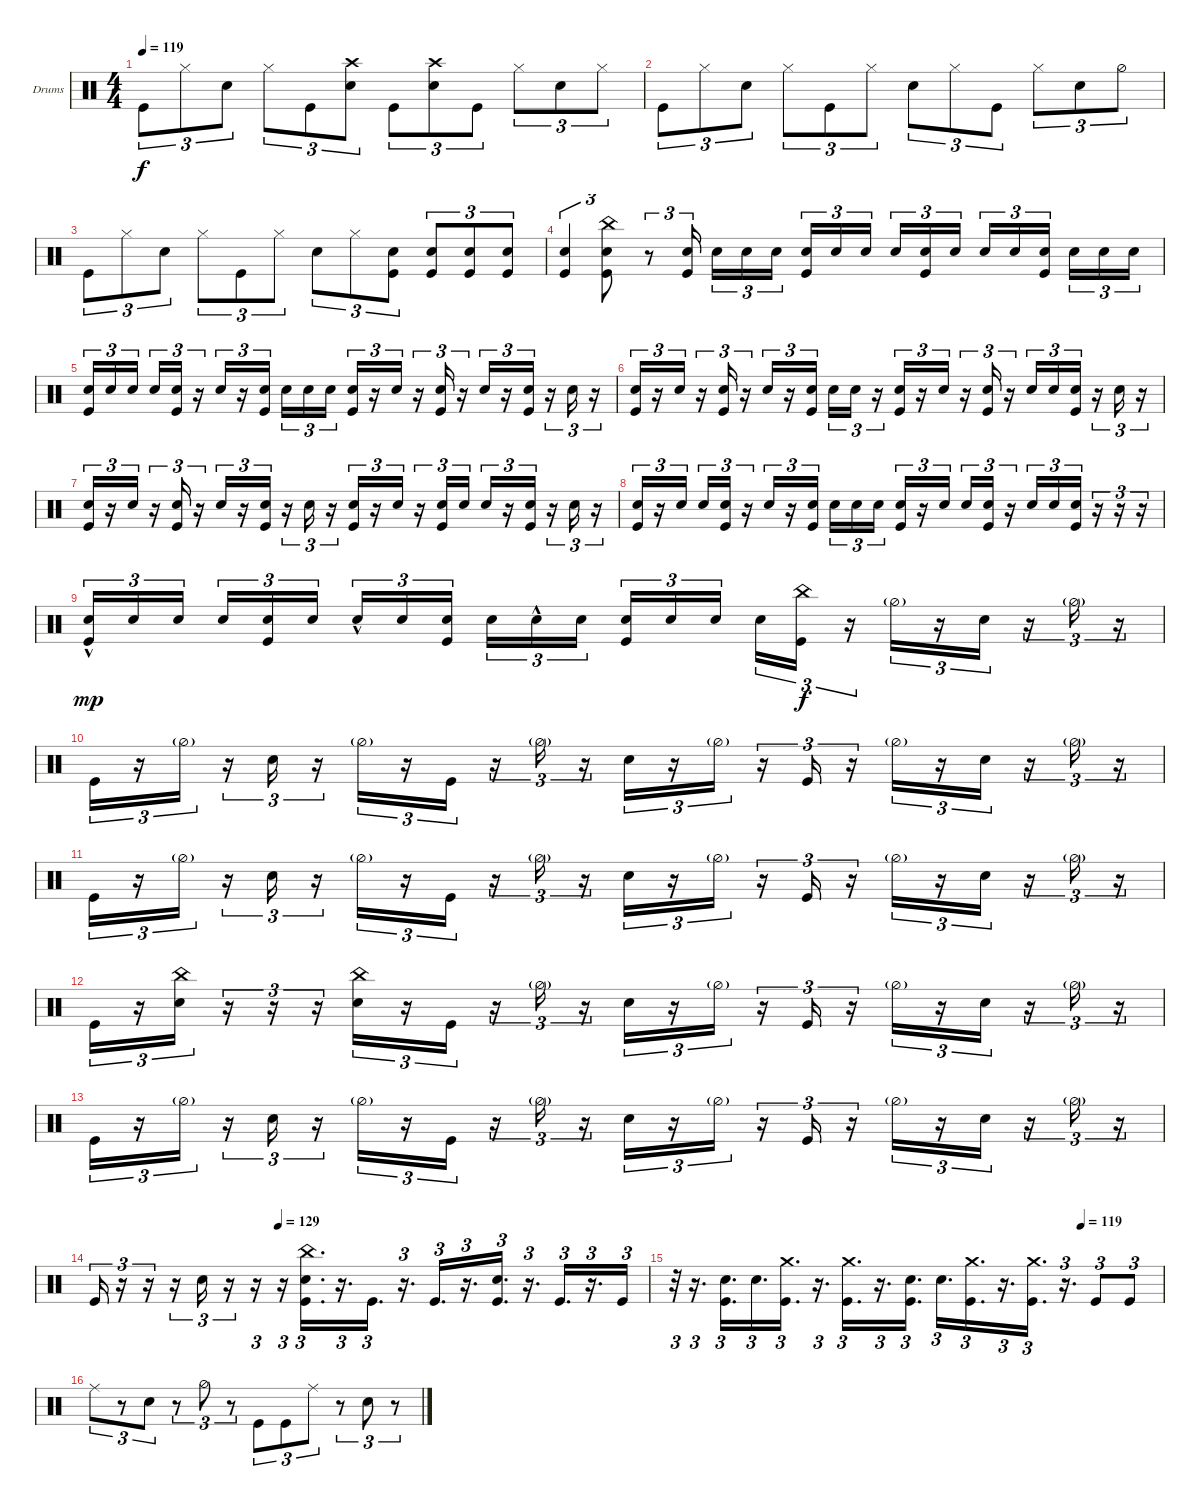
\defaultSystemsLayout 4
\bracketExtendMode groupsimilarinstruments
\firstSystemTrackNameOrientation horizontal
\otherSystemsTrackNameOrientation horizontal
\track ("Drumkit" "Drums") {instrument percussion}
\staff {score}
\articulation defaults
\ts (4 4)
\tempo 119
\clef neutral
\ks c "Kick (hit)".8{tu (3 2) dy f} "Hi-Hat (closed)".8{tu (3 2)} "Snare (hit) 2".8{tu (3 2)} "Hi-Hat (closed)".8{tu (3 2)} "Kick (hit)".8{tu (3 2)}
("Snare (hit) 2" "Crash high (hit)").8{tu (3 2)} "Kick (hit)".8{tu (3 2)} ("Snare (hit) 2" "Crash high (hit)").8{tu (3 2)} "Kick (hit)".8{tu (3 2)} "Hi-Hat (closed)".8{tu (3 2)} "Snare (hit) 2".8{tu (3 2)} "Hi-Hat (closed)".8{tu (3 2)} |
"Kick (hit)".8{tu (3 2)} "Hi-Hat (closed)".8{tu (3 2)} "Snare (hit) 2".8{tu (3 2)} "Hi-Hat (closed)".8{tu (3 2)} "Kick (hit)".8{tu (3 2)} "Hi-Hat (closed)".8{tu (3 2)} "Snare (hit) 2".8{tu (3 2)} "Hi-Hat (closed)".8{tu (3 2)} "Kick (hit)".8{tu (3 2)} "Hi-Hat (closed)".8{tu (3 2)} "Snare (hit) 2".8{tu (3 2)} "Hi-Hat (half)".8{tu (3 2)} |
"Kick (hit)".8{tu (3 2)} "Hi-Hat (closed)".8{tu (3 2)} "Snare (hit) 2".8{tu (3 2)} "Hi-Hat (closed)".8{tu (3 2)} "Kick (hit)".8{tu (3 2)} "Hi-Hat (closed)".8{tu (3 2)} "Snare (hit) 2".8{tu (3 2)} "Hi-Hat (closed)".8{tu (3 2)} ("Kick (hit)" "Snare (hit) 2").8{tu (3 2)} ("Kick (hit)" "Snare (hit) 2").8{tu (3 2)} ("Kick (hit)" "Snare (hit) 2").8{tu (3 2)} ("Kick (hit)" "Snare (hit) 2").8{tu (3 2)} |
("Kick (hit)" "Snare (hit) 2").4{tu (3 2)} ("Snare (hit) 2" "Kick (hit)" "China (hit)").8{tu (3 2)} r.8{tu (3 2)} ("Kick (hit)" "Snare (hit) 2").16{tu (3 2)} "Snare (hit) 2".16{tu (3 2)} "Snare (hit) 2".16{tu (3 2)} "Snare (hit) 2".16{tu (3 2)} ("Kick (hit)" "Snare (hit) 2").16{tu (3 2)} "Snare (hit) 2".16{tu (3 2)} "Snare (hit) 2".16{tu (3 2)} "Snare (hit) 2".16{tu (3 2)} ("Kick (hit)" "Snare (hit) 2").16{tu (3 2)} "Snare (hit) 2".16{tu (3 2)} "Snare (hit) 2".16{tu (3 2)} "Snare (hit) 2".16{tu (3 2)} ("Kick (hit)" "Snare (hit) 2").16{tu (3 2)} "Snare (hit) 2".16{tu (3 2)} "Snare (hit) 2".16{tu (3 2)} "Snare (hit) 2".16{tu (3 2)} |
("Kick (hit)" "Snare (hit) 2").16{tu (3 2)} "Snare (hit) 2".16{tu (3 2)} "Snare (hit) 2".16{tu (3 2)} "Snare (hit) 2".16{tu (3 2)} ("Kick (hit)" "Snare (hit) 2").16{tu (3 2)} r.16{tu (3 2)} "Snare (hit) 2".16{tu (3 2)} r.16{tu (3 2)} ("Kick (hit)" "Snare (hit) 2").16{tu (3 2)} "Snare (hit) 2".16{tu (3 2)} "Snare (hit) 2".16{tu (3 2)} "Snare (hit) 2".16{tu (3 2)} ("Kick (hit)" "Snare (hit) 2").16{tu (3 2)} r.16{tu (3 2)} "Snare (hit) 2".16{tu (3 2)} r.16{tu (3 2)} ("Kick (hit)" "Snare (hit) 2").16{tu (3 2)} r.16{tu (3 2)} "Snare (hit) 2".16{tu (3 2)} r.16{tu (3 2)} ("Kick (hit)" "Snare (hit) 2").16{tu (3 2)} r.16{tu (3 2)} "Snare (hit) 2".16{tu (3 2)} r.16{tu (3 2)} |
("Kick (hit)" "Snare (hit) 2").16{tu (3 2)} r.16{tu (3 2)} "Snare (hit) 2".16{tu (3 2)} r.16{tu (3 2)} ("Kick (hit)" "Snare (hit) 2").16{tu (3 2)} r.16{tu (3 2)} "Snare (hit) 2".16{tu (3 2)} r.16{tu (3 2)} ("Kick (hit)" "Snare (hit) 2").16{tu (3 2)} "Snare (hit) 2".16{tu (3 2)} "Snare (hit) 2".16{tu (3 2)} r.16{tu (3 2)} ("Kick (hit)" "Snare (hit) 2").16{tu (3 2)} r.16{tu (3 2)} "Snare (hit) 2".16{tu (3 2)} r.16{tu (3 2)} ("Kick (hit)" "Snare (hit) 2").16{tu (3 2)} r.16{tu (3 2)} "Snare (hit) 2".16{tu (3 2)} "Snare (hit) 2".16{tu (3 2)} ("Kick (hit)" "Snare (hit) 2").16{tu (3 2)} r.16{tu (3 2)} "Snare (hit) 2".16{tu (3 2)} r.16{tu (3 2)} |
("Kick (hit)" "Snare (hit) 2").16{tu (3 2)} r.16{tu (3 2)} "Snare (hit) 2".16{tu (3 2)} r.16{tu (3 2)} ("Kick (hit)" "Snare (hit) 2").16{tu (3 2)} r.16{tu (3 2)} "Snare (hit) 2".16{tu (3 2)} r.16{tu (3 2)} ("Kick (hit)" "Snare (hit) 2").16{tu (3 2)} r.16{tu (3 2)} "Snare (hit) 2".16{tu (3 2)} r.16{tu (3 2)} ("Kick (hit)" "Snare (hit) 2").16{tu (3 2)} r.16{tu (3 2)} "Snare (hit) 2".16{tu (3 2)} r.16{tu (3 2)} ("Kick (hit)" "Snare (hit) 2").16{tu (3 2)} "Snare (hit) 2".16{tu (3 2)} "Snare (hit) 2".16{tu (3 2)} r.16{tu (3 2)} ("Kick (hit)" "Snare (hit) 2").16{tu (3 2)} r.16{tu (3 2)} "Snare (hit) 2".16{tu (3 2)} r.16{tu (3 2)} |
("Kick (hit)" "Snare (hit) 2").16{tu (3 2)} r.16{tu (3 2)} "Snare (hit) 2".16{tu (3 2)} "Snare (hit) 2".16{tu (3 2)} ("Kick (hit)" "Snare (hit) 2").16{tu (3 2)} r.16{tu (3 2)} "Snare (hit) 2".16{tu (3 2)} r.16{tu (3 2)} ("Kick (hit)" "Snare (hit) 2").16{tu (3 2)} "Snare (hit) 2".16{tu (3 2)} "Snare (hit) 2".16{tu (3 2)} "Snare (hit) 2".16{tu (3 2)} ("Kick (hit)" "Snare (hit) 2").16{tu (3 2)} r.16{tu (3 2)} "Snare (hit) 2".16{tu (3 2)} "Snare (hit) 2".16{tu (3 2)} ("Kick (hit)" "Snare (hit) 2").16{tu (3 2)} r.16{tu (3 2)} "Snare (hit) 2".16{tu (3 2)} "Snare (hit) 2".16{tu (3 2)} ("Kick (hit)" "Snare (hit) 2").16{tu (3 2)} r.16{tu (3 2)} r.16{tu (3 2)} r.16{tu (3 2)} |
("Snare (hit) 2"{hac} "Kick (hit)").16{tu (3 2) dy mp} "Snare (hit) 2".16{tu (3 2)} "Snare (hit) 2".16{tu (3 2)} "Snare (hit) 2".16{tu (3 2)} ("Snare (hit) 2" "Kick (hit)").16{tu (3 2)} "Snare (hit) 2".16{tu (3 2)} "Snare (hit) 2"{hac}.16{tu (3 2)} "Snare (hit) 2".16{tu (3 2)} ("Kick (hit)" "Snare (hit) 2").16{tu (3 2)} "Snare (hit) 2".16{tu (3 2)} "Snare (hit) 2"{hac}.16{tu (3 2)} "Snare (hit) 2".16{tu (3 2)} ("Kick (hit)" "Snare (hit) 2").16{tu (3 2)} "Snare (hit) 2".16{tu (3 2)} "Snare (hit) 2".16{tu (3 2)} "Snare (hit) 2".16{tu (3 2)} ("Kick (hit)" "China (hit)").16{tu (3 2) dy f} r.16{tu (3 2)} "Hi-Hat (half)"{g}.16{tu (3 2)} r.16{tu (3 2)} "Snare (hit) 2".16{tu (3 2)} r.16{tu (3 2)} "Hi-Hat (half)"{g}.16{tu (3 2)} r.16{tu (3 2)} |
"Kick (hit)".16{tu (3 2)} r.16{tu (3 2)} "Hi-Hat (half)"{g}.16{tu (3 2)} r.16{tu (3 2)} "Snare (hit) 2".16{tu (3 2)} r.16{tu (3 2)} "Hi-Hat (half)"{g}.16{tu (3 2)} r.16{tu (3 2)} "Kick (hit)".16{tu (3 2)} r.16{tu (3 2)} "Hi-Hat (half)"{g}.16{tu (3 2)} r.16{tu (3 2)} "Snare (hit) 2".16{tu (3 2)} r.16{tu (3 2)} "Hi-Hat (half)"{g}.16{tu (3 2)} r.16{tu (3 2)} "Kick (hit)".16{tu (3 2)} r.16{tu (3 2)} "Hi-Hat (half)"{g}.16{tu (3 2)} r.16{tu (3 2)} "Snare (hit) 2".16{tu (3 2)} r.16{tu (3 2)} "Hi-Hat (half)"{g}.16{tu (3 2)} r.16{tu (3 2)} |
"Kick (hit)".16{tu (3 2)} r.16{tu (3 2)} "Hi-Hat (half)"{g}.16{tu (3 2)} r.16{tu (3 2)} "Snare (hit) 2".16{tu (3 2)} r.16{tu (3 2)} "Hi-Hat (half)"{g}.16{tu (3 2)} r.16{tu (3 2)} "Kick (hit)".16{tu (3 2)} r.16{tu (3 2)} "Hi-Hat (half)"{g}.16{tu (3 2)} r.16{tu (3 2)} "Snare (hit) 2".16{tu (3 2)} r.16{tu (3 2)} "Hi-Hat (half)"{g}.16{tu (3 2)} r.16{tu (3 2)} "Kick (hit)".16{tu (3 2)} r.16{tu (3 2)} "Hi-Hat (half)"{g}.16{tu (3 2)} r.16{tu (3 2)} "Snare (hit) 2".16{tu (3 2)} r.16{tu (3 2)} "Hi-Hat (half)"{g}.16{tu (3 2)} r.16{tu (3 2)} |
"Kick (hit)".16{tu (3 2)} r.16{tu (3 2)} ("Snare (hit) 2" "China (hit)").16{tu (3 2)} r.16{tu (3 2)} r.16{tu (3 2)} r.16{tu (3 2)} ("Snare (hit) 2" "China (hit)").16{tu (3 2)} r.16{tu (3 2)} "Kick (hit)".16{tu (3 2)} r.16{tu (3 2)} "Hi-Hat (half)"{g}.16{tu (3 2)} r.16{tu (3 2)} "Snare (hit) 2".16{tu (3 2)} r.16{tu (3 2)} "Hi-Hat (half)"{g}.16{tu (3 2)} r.16{tu (3 2)} "Kick (hit)".16{tu (3 2)} r.16{tu (3 2)} "Hi-Hat (half)"{g}.16{tu (3 2)} r.16{tu (3 2)} "Snare (hit) 2".16{tu (3 2)} r.16{tu (3 2)} "Hi-Hat (half)"{g}.16{tu (3 2)} r.16{tu (3 2)} |
"Kick (hit)".16{tu (3 2)} r.16{tu (3 2)} "Hi-Hat (half)"{g}.16{tu (3 2)} r.16{tu (3 2)} "Snare (hit) 2".16{tu (3 2)} r.16{tu (3 2)} "Hi-Hat (half)"{g}.16{tu (3 2)} r.16{tu (3 2)} "Kick (hit)".16{tu (3 2)} r.16{tu (3 2)} "Hi-Hat (half)"{g}.16{tu (3 2)} r.16{tu (3 2)} "Snare (hit) 2".16{tu (3 2)} r.16{tu (3 2)} "Hi-Hat (half)"{g}.16{tu (3 2)} r.16{tu (3 2)} "Kick (hit)".16{tu (3 2)} r.16{tu (3 2)} "Hi-Hat (half)"{g}.16{tu (3 2)} r.16{tu (3 2)} "Snare (hit) 2".16{tu (3 2)} r.16{tu (3 2)} "Hi-Hat (half)"{g}.16{tu (3 2)} r.16{tu (3 2)} |
\tempo (129 0.333333)
"Kick (hit)".16{tu (3 2)} r.16{tu (3 2)} r.16{tu (3 2)} r.16{tu (3 2)} "Snare (hit) 2".16{tu (3 2)} r.16{tu (3 2)} r.16{tu (3 2)} r.16{tu (3 2)} ("Kick (hit)" "Snare (hit) 2" "China (hit)").16{d tu (3 2)} r.16{d tu (3 2)} "Kick (hit)".16{d tu (3 2)} r.16{d tu (3 2)} "Kick (hit)".16{d tu (3 2)} r.16{d tu (3 2)} ("Kick (hit)" "Snare (hit) 2").16{d tu (3 2)} r.16{d tu (3 2)} "Kick (hit)".16{d tu (3 2)} r.16{d tu (3 2)} "Kick (hit)".16{tu (3 2)} |
\tempo (119 0.833333)
r.32{tu (3 2)} r.16{d tu (3 2)} ("Kick (hit)" "Snare (hit) 2").16{d tu (3 2)} "Snare (hit) 2".16{d tu (3 2)} ("Kick (hit)" "Crash medium (hit)").16{d tu (3 2)} r.16{d tu (3 2)} ("Kick (hit)" "Crash medium (hit)").16{d tu (3 2)} r.16{d tu (3 2)} ("Kick (hit)" "Snare (hit) 2").16{d tu (3 2)} "Snare (hit) 2".16{d tu (3 2)} ("Kick (hit)" "Crash medium (hit)").16{d tu (3 2)} r.16{d tu (3 2)} ("Kick (hit)" "Crash medium (hit)").16{d tu (3 2)} r.16{d tu (3 2)} "Kick (hit)".8{tu (3 2)} "Kick (hit)".8{tu (3 2)} |
"Ride (middle)".8{tu (3 2)} r.8{tu (3 2)} "Snare (hit) 2".8{tu (3 2)} r.8{tu (3 2)} "Hi-Hat (half)".8{tu (3 2)} r.8{tu (3 2)} "Kick (hit)".8{tu (3 2)} "Kick (hit)".8{tu (3 2)} "Ride (middle)".8{tu (3 2)} r.8{tu (3 2)} "Snare (hit) 2".8{tu (3 2)} r.8{tu (3 2)}
